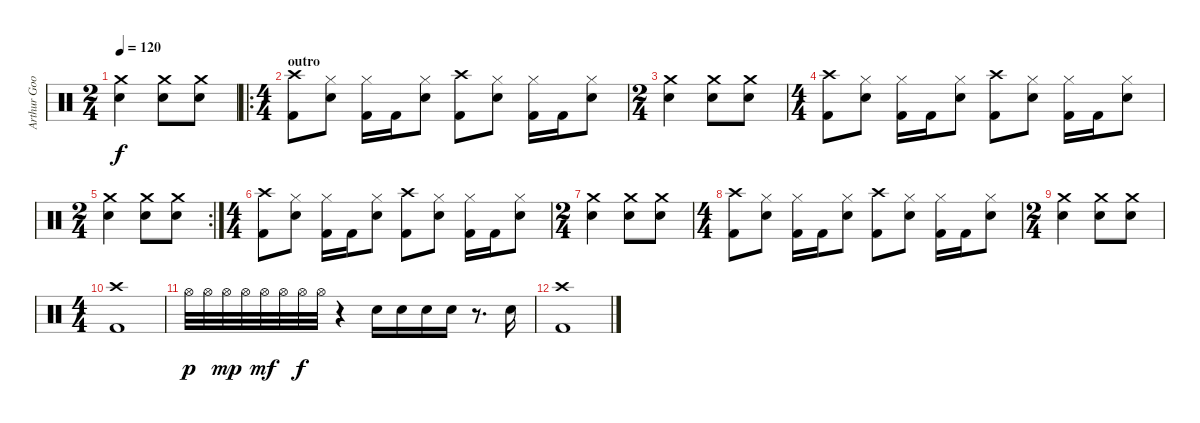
\track ("Arthur Googy" "Arthur Goo") {instrument percussion}
\staff {score}
\articulation defaults
\ts (2 4)
\tempo 120
\clef neutral
\ks c
("Crash medium (hit)" "Snare (hit) 2").4{dy f} ("Crash medium (hit)" "Snare (hit) 2").8 ("Crash medium (hit)" "Snare (hit) 2").8 |
\ro
\ts (4 4)
\section ("" "outro")
("Crash high (hit)" "Kick (hit) 2").8 ("Hi-Hat (closed)" "Snare (hit) 2").8 ("Hi-Hat (closed)" "Kick (hit) 2").16 "Kick (hit) 2".16 ("Hi-Hat (closed)" "Snare (hit) 2").8 ("Crash high (hit)" "Kick (hit) 2").8 ("Hi-Hat (closed)" "Snare (hit) 2").8 ("Hi-Hat (closed)" "Kick (hit) 2").16 "Kick (hit) 2".16 ("Hi-Hat (closed)" "Snare (hit) 2").8 |
\ts (2 4)
("Crash medium (hit)" "Snare (hit) 2").4 ("Crash medium (hit)" "Snare (hit) 2").8 ("Crash medium (hit)" "Snare (hit) 2").8 |
\ts (4 4)
("Crash high (hit)" "Kick (hit) 2").8 ("Hi-Hat (closed)" "Snare (hit) 2").8 ("Hi-Hat (closed)" "Kick (hit) 2").16 "Kick (hit) 2".16 ("Hi-Hat (closed)" "Snare (hit) 2").8 ("Crash high (hit)" "Kick (hit) 2").8 ("Hi-Hat (closed)" "Snare (hit) 2").8 ("Hi-Hat (closed)" "Kick (hit) 2").16 "Kick (hit) 2".16 ("Hi-Hat (closed)" "Snare (hit) 2").8 |
\rc 2
\ts (2 4)
("Crash medium (hit)" "Snare (hit) 2").4 ("Crash medium (hit)" "Snare (hit) 2").8 ("Crash medium (hit)" "Snare (hit) 2").8 |
\ts (4 4)
("Crash high (hit)" "Kick (hit) 2").8 ("Hi-Hat (closed)" "Snare (hit) 2").8 ("Hi-Hat (closed)" "Kick (hit) 2").16 "Kick (hit) 2".16 ("Hi-Hat (closed)" "Snare (hit) 2").8 ("Crash high (hit)" "Kick (hit) 2").8 ("Hi-Hat (closed)" "Snare (hit) 2").8 ("Hi-Hat (closed)" "Kick (hit) 2").16 "Kick (hit) 2".16 ("Hi-Hat (closed)" "Snare (hit) 2").8 |
\ts (2 4)
("Crash medium (hit)" "Snare (hit) 2").4 ("Crash medium (hit)" "Snare (hit) 2").8 ("Crash medium (hit)" "Snare (hit) 2").8 |
\ts (4 4)
("Crash high (hit)" "Kick (hit) 2").8 ("Hi-Hat (closed)" "Snare (hit) 2").8 ("Hi-Hat (closed)" "Kick (hit) 2").16 "Kick (hit) 2".16 ("Hi-Hat (closed)" "Snare (hit) 2").8 ("Crash high (hit)" "Kick (hit) 2").8 ("Hi-Hat (closed)" "Snare (hit) 2").8 ("Hi-Hat (closed)" "Kick (hit) 2").16 "Kick (hit) 2".16 ("Hi-Hat (closed)" "Snare (hit) 2").8 |
\ts (2 4)
("Crash medium (hit)" "Snare (hit) 2").4 ("Crash medium (hit)" "Snare (hit) 2").8 ("Crash medium (hit)" "Snare (hit) 2").8 |
\ts (4 4)
("Crash high (hit)" "Kick (hit) 2").1 |
"Hi-Hat (open)".32{dy p} "Hi-Hat (open)".32 "Hi-Hat (open)".32{dy mp} "Hi-Hat (open)".32 "Hi-Hat (open)".32{dy mf} "Hi-Hat (open)".32 "Hi-Hat (open)".32{dy f} "Hi-Hat (open)".32 r.4 "Snare (hit) 2".16 "Snare (hit) 2".16 "Snare (hit) 2".16 "Snare (hit) 2".16 r.8{d} "Snare (hit) 2".16 |
("Crash high (hit)" "Kick (hit) 2").1
